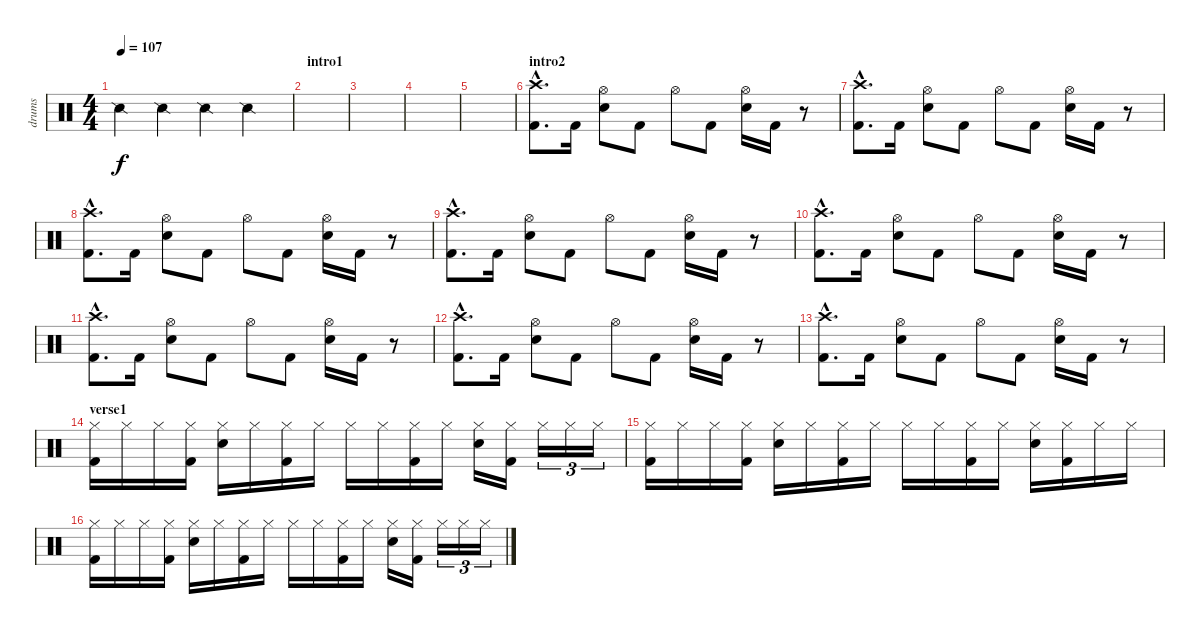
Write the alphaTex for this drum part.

\track ("drums" "drums") {instrument percussion}
\staff {score}
\articulation defaults
\ts (4 4)
\tempo 107
\clef neutral
\ks c "Snare (side stick) 2".4{dy f} "Snare (side stick) 2".4 "Snare (side stick) 2".4 "Snare (side stick) 2".4
|
\section ("" "intro1")
|
|
|
|
\section ("" "intro2")
("Crash high (hit)"{hac} "Kick (hit) 2"{hac}).8{d} "Kick (hit) 2".16 ("Hi-Hat (open)" "Electric Snare (hit)").8 "Kick (hit) 2".8 "Hi-Hat (open)".8 "Kick (hit) 2".8 ("Hi-Hat (open)" "Electric Snare (hit)").16 "Kick (hit) 2".16 r.8 |
("Crash high (hit)"{hac} "Kick (hit) 2"{hac}).8{d} "Kick (hit) 2".16 ("Hi-Hat (open)" "Electric Snare (hit)").8 "Kick (hit) 2".8 "Hi-Hat (open)".8 "Kick (hit) 2".8 ("Hi-Hat (open)" "Electric Snare (hit)").16 "Kick (hit) 2".16 r.8 |
("Crash high (hit)"{hac} "Kick (hit) 2"{hac}).8{d} "Kick (hit) 2".16 ("Hi-Hat (open)" "Electric Snare (hit)").8 "Kick (hit) 2".8 "Hi-Hat (open)".8 "Kick (hit) 2".8 ("Hi-Hat (open)" "Electric Snare (hit)").16 "Kick (hit) 2".16 r.8 |
("Crash high (hit)"{hac} "Kick (hit) 2"{hac}).8{d} "Kick (hit) 2".16 ("Hi-Hat (open)" "Electric Snare (hit)").8 "Kick (hit) 2".8 "Hi-Hat (open)".8 "Kick (hit) 2".8 ("Hi-Hat (open)" "Electric Snare (hit)").16 "Kick (hit) 2".16 r.8 |
("Crash high (hit)"{hac} "Kick (hit) 2"{hac}).8{d} "Kick (hit) 2".16 ("Hi-Hat (open)" "Electric Snare (hit)").8 "Kick (hit) 2".8 "Hi-Hat (open)".8 "Kick (hit) 2".8 ("Hi-Hat (open)" "Electric Snare (hit)").16 "Kick (hit) 2".16 r.8 |
("Crash high (hit)"{hac} "Kick (hit) 2"{hac}).8{d} "Kick (hit) 2".16 ("Hi-Hat (open)" "Electric Snare (hit)").8 "Kick (hit) 2".8 "Hi-Hat (open)".8 "Kick (hit) 2".8 ("Hi-Hat (open)" "Electric Snare (hit)").16 "Kick (hit) 2".16 r.8 |
("Crash high (hit)"{hac} "Kick (hit) 2"{hac}).8{d} "Kick (hit) 2".16 ("Hi-Hat (open)" "Electric Snare (hit)").8 "Kick (hit) 2".8 "Hi-Hat (open)".8 "Kick (hit) 2".8 ("Hi-Hat (open)" "Electric Snare (hit)").16 "Kick (hit) 2".16 r.8 |
("Crash high (hit)"{hac} "Kick (hit) 2"{hac}).8{d} "Kick (hit) 2".16 ("Hi-Hat (open)" "Electric Snare (hit)").8 "Kick (hit) 2".8 "Hi-Hat (open)".8 "Kick (hit) 2".8 ("Hi-Hat (open)" "Electric Snare (hit)").16 "Kick (hit) 2".16 r.8 |
\section ("" "verse1")
("Hi-Hat (closed)" "Kick (hit) 2").16 "Hi-Hat (closed)".16 "Hi-Hat (closed)".16 ("Hi-Hat (closed)" "Kick (hit) 2").16 ("Hi-Hat (closed)" "Electric Snare (hit)").16 "Hi-Hat (closed)".16 ("Hi-Hat (closed)" "Kick (hit) 2").16 "Hi-Hat (closed)".16 "Hi-Hat (closed)".16 "Hi-Hat (closed)".16 ("Hi-Hat (closed)" "Kick (hit) 2").16 "Hi-Hat (closed)".16 ("Hi-Hat (closed)" "Electric Snare (hit)").16 ("Hi-Hat (closed)" "Kick (hit) 2").16 "Hi-Hat (closed)".16{tu (3 2)} "Hi-Hat (closed)".16{tu (3 2)} "Hi-Hat (closed)".16{tu (3 2)} |
("Hi-Hat (closed)" "Kick (hit) 2").16 "Hi-Hat (closed)".16 "Hi-Hat (closed)".16 ("Hi-Hat (closed)" "Kick (hit) 2").16 ("Hi-Hat (closed)" "Electric Snare (hit)").16 "Hi-Hat (closed)".16 ("Hi-Hat (closed)" "Kick (hit) 2").16 "Hi-Hat (closed)".16 "Hi-Hat (closed)".16 "Hi-Hat (closed)".16 ("Hi-Hat (closed)" "Kick (hit) 2").16 "Hi-Hat (closed)".16 ("Hi-Hat (closed)" "Electric Snare (hit)").16 ("Hi-Hat (closed)" "Kick (hit) 2").16 "Hi-Hat (closed)".16 "Hi-Hat (closed)".16 |
("Hi-Hat (closed)" "Kick (hit) 2").16 "Hi-Hat (closed)".16 "Hi-Hat (closed)".16 ("Hi-Hat (closed)" "Kick (hit) 2").16 ("Hi-Hat (closed)" "Electric Snare (hit)").16 "Hi-Hat (closed)".16 ("Hi-Hat (closed)" "Kick (hit) 2").16 "Hi-Hat (closed)".16 "Hi-Hat (closed)".16 "Hi-Hat (closed)".16 ("Hi-Hat (closed)" "Kick (hit) 2").16 "Hi-Hat (closed)".16 ("Hi-Hat (closed)" "Electric Snare (hit)").16 ("Hi-Hat (closed)" "Kick (hit) 2").16 "Hi-Hat (closed)".16{tu (3 2)} "Hi-Hat (closed)".16{tu (3 2)} "Hi-Hat (closed)".16{tu (3 2)}
